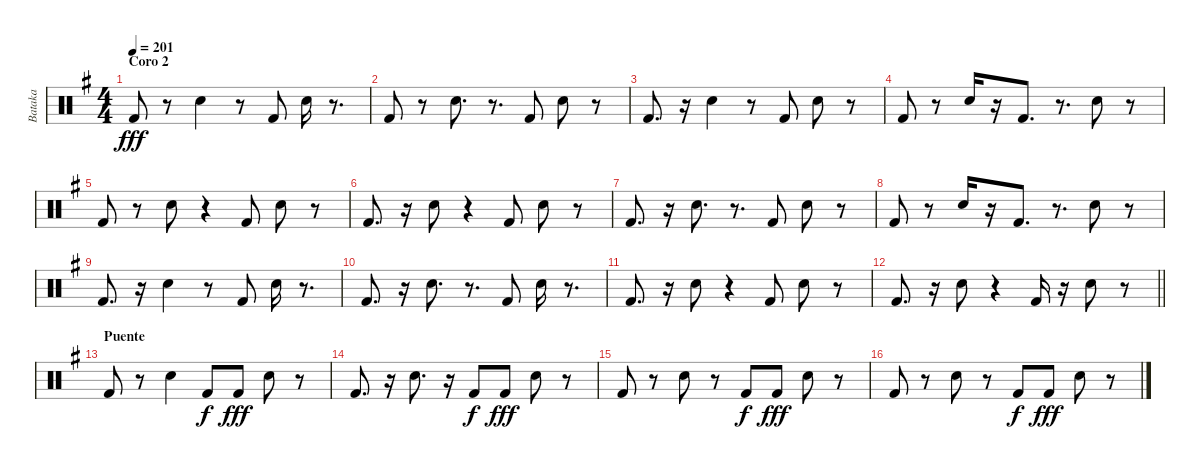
\track ("Bataka" "Bataka") {instrument percussion}
\staff {score}
\articulation defaults
\ts (4 4)
\section ("" "Coro 2")
\tempo 201
\clef neutral
\ks g "Kick (hit) 2".8{dy fff}
r.8 "Electric Snare (hit)".4 r.8 "Kick (hit) 2".8 "Electric Snare (hit)".16 r.8{d} |
"Kick (hit) 2".8 r.8 "Electric Snare (hit)".8{d} r.8{d} "Kick (hit) 2".8 "Electric Snare (hit)".8 r.8 |
"Kick (hit) 2".8{d} r.16 "Electric Snare (hit)".4 r.8 "Kick (hit) 2".8 "Electric Snare (hit)".8 r.8 |
"Kick (hit) 2".8 r.8 "Electric Snare (hit)".16 r.16 "Kick (hit) 2".8{d} r.8{d} "Electric Snare (hit)".8 r.8 |
"Kick (hit) 2".8 r.8 "Electric Snare (hit)".8 r.4 "Kick (hit) 2".8 "Electric Snare (hit)".8 r.8 |
"Kick (hit) 2".8{d} r.16 "Electric Snare (hit)".8 r.4 "Kick (hit) 2".8 "Electric Snare (hit)".8 r.8 |
"Kick (hit) 2".8{d} r.16 "Electric Snare (hit)".8{d} r.8{d} "Kick (hit) 2".8 "Electric Snare (hit)".8 r.8 |
"Kick (hit) 2".8 r.8 "Electric Snare (hit)".16 r.16 "Kick (hit) 2".8{d} r.8{d} "Electric Snare (hit)".8 r.8 |
"Kick (hit) 2".8{d} r.16 "Electric Snare (hit)".4 r.8 "Kick (hit) 2".8 "Electric Snare (hit)".16 r.8{d} |
"Kick (hit) 2".8{d} r.16 "Electric Snare (hit)".8{d} r.8{d} "Kick (hit) 2".8 "Electric Snare (hit)".16 r.8{d} |
"Kick (hit) 2".8{d} r.16 "Electric Snare (hit)".8 r.4 "Kick (hit) 2".8 "Electric Snare (hit)".8 r.8 |
\barLineRight lightlight "Kick (hit) 2".8{d}
r.16 "Electric Snare (hit)".8 r.4 "Kick (hit) 2".16 r.16 "Electric Snare (hit)".8 r.8 |
\section ("" "Puente")
"Kick (hit) 2".8 r.8 "Electric Snare (hit)".4 "Kick (hit) 2".8{dy f} "Kick (hit) 2".8{dy fff} "Electric Snare (hit)".8 r.8 |
"Kick (hit) 2".8{d} r.16 "Electric Snare (hit)".8{d} r.16 "Kick (hit) 2".8{dy f} "Kick (hit) 2".8{dy fff} "Electric Snare (hit)".8 r.8 |
"Kick (hit) 2".8 r.8 "Electric Snare (hit)".8 r.8 "Kick (hit) 2".8{dy f} "Kick (hit) 2".8{dy fff} "Electric Snare (hit)".8 r.8 |
"Kick (hit) 2".8 r.8 "Electric Snare (hit)".8 r.8 "Kick (hit) 2".8{dy f} "Kick (hit) 2".8{dy fff} "Electric Snare (hit)".8 r.8
